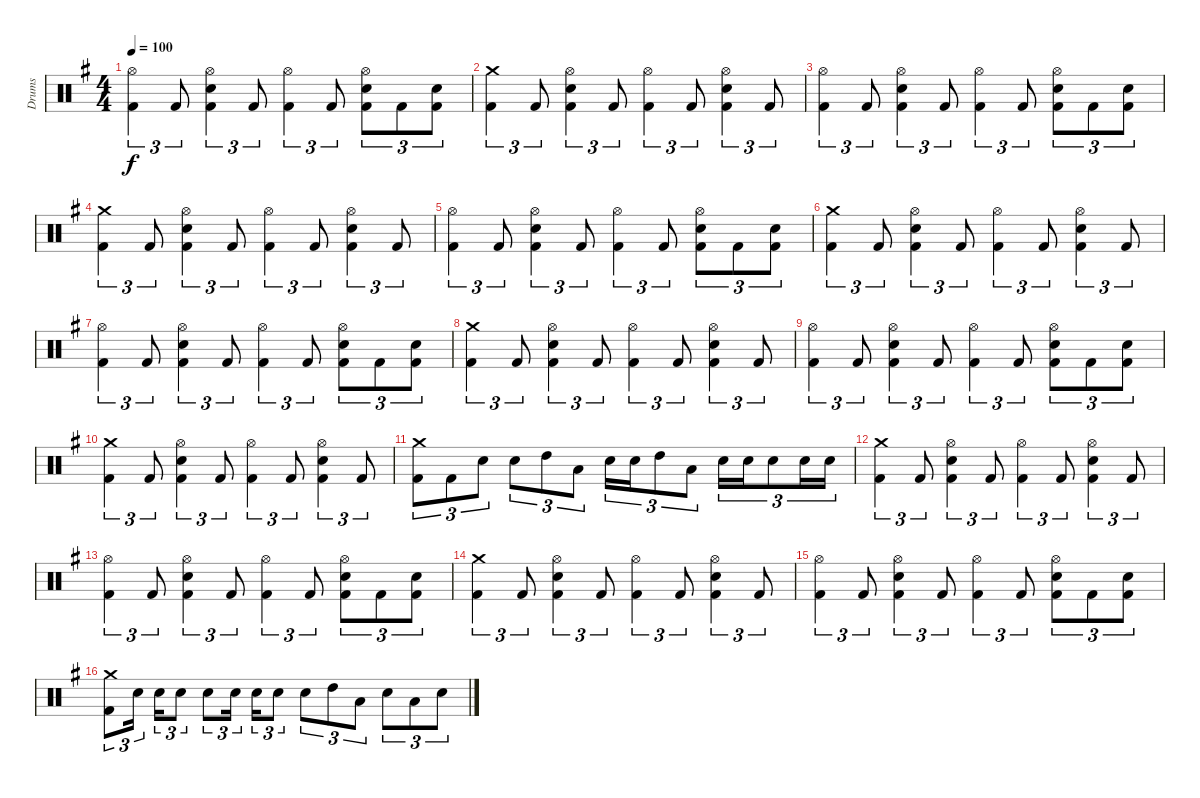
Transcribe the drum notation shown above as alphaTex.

\track ("Drums" "Drums") {instrument percussion}
\staff {score}
\articulation defaults
\ts (4 4)
\tempo 100
\clef neutral
\ks g
("Hi-Hat (open)" "Kick (hit) 2").4{tu (3 2) dy f} "Kick (hit) 2".8{tu (3 2)} ("Hi-Hat (open)" "Snare (hit) 2" "Kick (hit) 2").4{tu (3 2)} "Kick (hit) 2".8{tu (3 2)} ("Hi-Hat (open)" "Kick (hit) 2").4{tu (3 2)} "Kick (hit) 2".8{tu (3 2)} ("Hi-Hat (open)" "Snare (hit) 2" "Kick (hit) 2").8{tu (3 2)} "Kick (hit) 2".8{tu (3 2)} ("Snare (hit) 2" "Kick (hit) 2").8{tu (3 2)} |
("Crash medium (hit)" "Kick (hit) 2").4{tu (3 2)} "Kick (hit) 2".8{tu (3 2)} ("Hi-Hat (open)" "Snare (hit) 2" "Kick (hit) 2").4{tu (3 2)} "Kick (hit) 2".8{tu (3 2)} ("Hi-Hat (open)" "Kick (hit) 2").4{tu (3 2)} "Kick (hit) 2".8{tu (3 2)} ("Hi-Hat (open)" "Snare (hit) 2" "Kick (hit) 2").4{tu (3 2)} "Kick (hit) 2".8{tu (3 2)} |
("Hi-Hat (open)" "Kick (hit) 2").4{tu (3 2)} "Kick (hit) 2".8{tu (3 2)} ("Hi-Hat (open)" "Snare (hit) 2" "Kick (hit) 2").4{tu (3 2)} "Kick (hit) 2".8{tu (3 2)} ("Hi-Hat (open)" "Kick (hit) 2").4{tu (3 2)} "Kick (hit) 2".8{tu (3 2)} ("Hi-Hat (open)" "Snare (hit) 2" "Kick (hit) 2").8{tu (3 2)} "Kick (hit) 2".8{tu (3 2)} ("Snare (hit) 2" "Kick (hit) 2").8{tu (3 2)} |
("Crash medium (hit)" "Kick (hit) 2").4{tu (3 2)} "Kick (hit) 2".8{tu (3 2)} ("Hi-Hat (open)" "Snare (hit) 2" "Kick (hit) 2").4{tu (3 2)} "Kick (hit) 2".8{tu (3 2)} ("Hi-Hat (open)" "Kick (hit) 2").4{tu (3 2)} "Kick (hit) 2".8{tu (3 2)} ("Hi-Hat (open)" "Snare (hit) 2" "Kick (hit) 2").4{tu (3 2)} "Kick (hit) 2".8{tu (3 2)} |
("Hi-Hat (open)" "Kick (hit) 2").4{tu (3 2)} "Kick (hit) 2".8{tu (3 2)} ("Hi-Hat (open)" "Snare (hit) 2" "Kick (hit) 2").4{tu (3 2)} "Kick (hit) 2".8{tu (3 2)} ("Hi-Hat (open)" "Kick (hit) 2").4{tu (3 2)} "Kick (hit) 2".8{tu (3 2)} ("Hi-Hat (open)" "Snare (hit) 2" "Kick (hit) 2").8{tu (3 2)} "Kick (hit) 2".8{tu (3 2)} ("Snare (hit) 2" "Kick (hit) 2").8{tu (3 2)} |
("Crash medium (hit)" "Kick (hit) 2").4{tu (3 2)} "Kick (hit) 2".8{tu (3 2)} ("Hi-Hat (open)" "Snare (hit) 2" "Kick (hit) 2").4{tu (3 2)} "Kick (hit) 2".8{tu (3 2)} ("Hi-Hat (open)" "Kick (hit) 2").4{tu (3 2)} "Kick (hit) 2".8{tu (3 2)} ("Hi-Hat (open)" "Snare (hit) 2" "Kick (hit) 2").4{tu (3 2)} "Kick (hit) 2".8{tu (3 2)} |
("Hi-Hat (open)" "Kick (hit) 2").4{tu (3 2)} "Kick (hit) 2".8{tu (3 2)} ("Hi-Hat (open)" "Snare (hit) 2" "Kick (hit) 2").4{tu (3 2)} "Kick (hit) 2".8{tu (3 2)} ("Hi-Hat (open)" "Kick (hit) 2").4{tu (3 2)} "Kick (hit) 2".8{tu (3 2)} ("Hi-Hat (open)" "Snare (hit) 2" "Kick (hit) 2").8{tu (3 2)} "Kick (hit) 2".8{tu (3 2)} ("Snare (hit) 2" "Kick (hit) 2").8{tu (3 2)} |
("Crash medium (hit)" "Kick (hit) 2").4{tu (3 2)} "Kick (hit) 2".8{tu (3 2)} ("Hi-Hat (open)" "Snare (hit) 2" "Kick (hit) 2").4{tu (3 2)} "Kick (hit) 2".8{tu (3 2)} ("Hi-Hat (open)" "Kick (hit) 2").4{tu (3 2)} "Kick (hit) 2".8{tu (3 2)} ("Hi-Hat (open)" "Snare (hit) 2" "Kick (hit) 2").4{tu (3 2)} "Kick (hit) 2".8{tu (3 2)} |
("Hi-Hat (open)" "Kick (hit) 2").4{tu (3 2)} "Kick (hit) 2".8{tu (3 2)} ("Hi-Hat (open)" "Snare (hit) 2" "Kick (hit) 2").4{tu (3 2)} "Kick (hit) 2".8{tu (3 2)} ("Hi-Hat (open)" "Kick (hit) 2").4{tu (3 2)} "Kick (hit) 2".8{tu (3 2)} ("Hi-Hat (open)" "Snare (hit) 2" "Kick (hit) 2").8{tu (3 2)} "Kick (hit) 2".8{tu (3 2)} ("Snare (hit) 2" "Kick (hit) 2").8{tu (3 2)} |
("Crash medium (hit)" "Kick (hit) 2").4{tu (3 2)} "Kick (hit) 2".8{tu (3 2)} ("Hi-Hat (open)" "Snare (hit) 2" "Kick (hit) 2").4{tu (3 2)} "Kick (hit) 2".8{tu (3 2)} ("Hi-Hat (open)" "Kick (hit) 2").4{tu (3 2)} "Kick (hit) 2".8{tu (3 2)} ("Hi-Hat (open)" "Snare (hit) 2" "Kick (hit) 2").4{tu (3 2)} "Kick (hit) 2".8{tu (3 2)} |
("Crash medium (hit)" "Kick (hit) 2").8{tu (3 2)} "Kick (hit) 2".8{tu (3 2)} "Snare (hit) 2".8{tu (3 2)} "Snare (hit) 2".8{tu (3 2)} "High Tom (hit)".8{tu (3 2)} "Low Tom (hit)".8{tu (3 2)} "Snare (hit) 2".16{tu (3 2)} "Snare (hit) 2".16{tu (3 2)} "High Tom (hit)".8{tu (3 2)} "Low Tom (hit)".8{tu (3 2)} "Snare (hit) 2".16{tu (3 2)} "Snare (hit) 2".16{tu (3 2)} "Snare (hit) 2".8{tu (3 2)} "Snare (hit) 2".16{tu (3 2)} "Snare (hit) 2".16{tu (3 2)} |
("Crash medium (hit)" "Kick (hit) 2").4{tu (3 2)} "Kick (hit) 2".8{tu (3 2)} ("Hi-Hat (open)" "Snare (hit) 2" "Kick (hit) 2").4{tu (3 2)} "Kick (hit) 2".8{tu (3 2)} ("Hi-Hat (open)" "Kick (hit) 2").4{tu (3 2)} "Kick (hit) 2".8{tu (3 2)} ("Hi-Hat (open)" "Snare (hit) 2" "Kick (hit) 2").4{tu (3 2)} "Kick (hit) 2".8{tu (3 2)} |
("Hi-Hat (open)" "Kick (hit) 2").4{tu (3 2)} "Kick (hit) 2".8{tu (3 2)} ("Hi-Hat (open)" "Snare (hit) 2" "Kick (hit) 2").4{tu (3 2)} "Kick (hit) 2".8{tu (3 2)} ("Hi-Hat (open)" "Kick (hit) 2").4{tu (3 2)} "Kick (hit) 2".8{tu (3 2)} ("Hi-Hat (open)" "Snare (hit) 2" "Kick (hit) 2").8{tu (3 2)} "Kick (hit) 2".8{tu (3 2)} ("Snare (hit) 2" "Kick (hit) 2").8{tu (3 2)} |
("Crash medium (hit)" "Kick (hit) 2").4{tu (3 2)} "Kick (hit) 2".8{tu (3 2)} ("Hi-Hat (open)" "Snare (hit) 2" "Kick (hit) 2").4{tu (3 2)} "Kick (hit) 2".8{tu (3 2)} ("Hi-Hat (open)" "Kick (hit) 2").4{tu (3 2)} "Kick (hit) 2".8{tu (3 2)} ("Hi-Hat (open)" "Snare (hit) 2" "Kick (hit) 2").4{tu (3 2)} "Kick (hit) 2".8{tu (3 2)} |
("Hi-Hat (open)" "Kick (hit) 2").4{tu (3 2)} "Kick (hit) 2".8{tu (3 2)} ("Hi-Hat (open)" "Snare (hit) 2" "Kick (hit) 2").4{tu (3 2)} "Kick (hit) 2".8{tu (3 2)} ("Hi-Hat (open)" "Kick (hit) 2").4{tu (3 2)} "Kick (hit) 2".8{tu (3 2)} ("Hi-Hat (open)" "Snare (hit) 2" "Kick (hit) 2").8{tu (3 2)} "Kick (hit) 2".8{tu (3 2)} ("Snare (hit) 2" "Kick (hit) 2").8{tu (3 2)} |
("Crash medium (hit)" "Kick (hit) 2").8{tu (3 2)} "Snare (hit) 2".16{tu (3 2)} "Snare (hit) 2".16{tu (3 2)} "Snare (hit) 2".8{tu (3 2)} "Snare (hit) 2".8{tu (3 2)} "Snare (hit) 2".16{tu (3 2)} "Snare (hit) 2".16{tu (3 2)} "Snare (hit) 2".8{tu (3 2)} "Snare (hit) 2".8{tu (3 2)} "High Tom (hit)".8{tu (3 2)} "Low Tom (hit)".8{tu (3 2)} "Snare (hit) 2".8{tu (3 2)} "Low Tom (hit)".8{tu (3 2)} "Snare (hit) 2".8{tu (3 2)}
